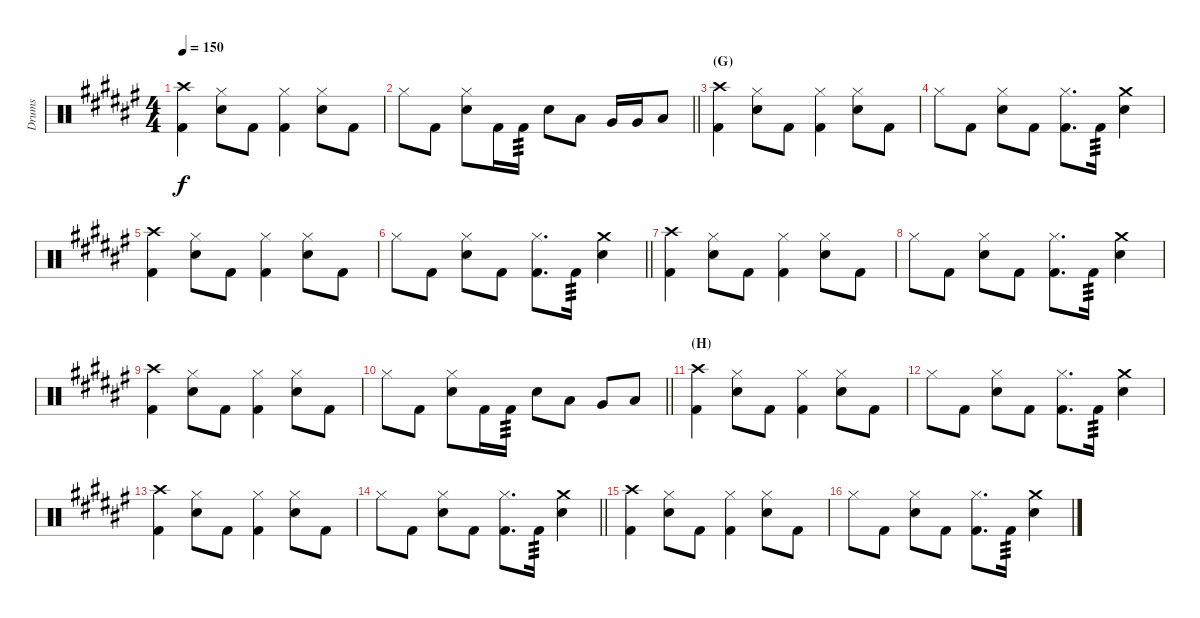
\track ("Drums" "Drums") {instrument percussion}
\staff {score}
\articulation defaults
\ts (4 4)
\tempo 150
\clef neutral
\ks f#
("Crash high (hit)" "Kick (hit) 2").4{dy f} ("Electric Snare (hit)" "Hi-Hat (closed)").8 "Kick (hit) 2".8 ("Hi-Hat (closed)" "Kick (hit) 2").4 ("Electric Snare (hit)" "Hi-Hat (closed)").8 "Kick (hit) 2".8 |
\barLineRight lightlight "Hi-Hat (closed)".8 "Kick (hit) 2".8
("Electric Snare (hit)" "Hi-Hat (closed)").8 "Kick (hit) 2".16 "Kick (hit) 2".16{tp 3} "Electric Snare (hit)".8 "Low Floor Tom (hit)".8 "Very Low Tom (hit)".16 "Very Low Tom (hit)".16 "Low Floor Tom (hit)".8 |
\section ("" "(G)")
("Crash high (hit)" "Kick (hit) 2").4 ("Electric Snare (hit)" "Hi-Hat (closed)").8 "Kick (hit) 2".8 ("Hi-Hat (closed)" "Kick (hit) 2").4 ("Electric Snare (hit)" "Hi-Hat (closed)").8 "Kick (hit) 2".8 |
"Hi-Hat (closed)".8 "Kick (hit) 2".8 ("Electric Snare (hit)" "Hi-Hat (closed)").8 "Kick (hit) 2".8 ("Hi-Hat (closed)" "Kick (hit) 2").8{d} "Kick (hit) 2".16{tp 3} ("Crash medium (hit)" "Electric Snare (hit)").4 |
("Crash high (hit)" "Kick (hit) 2").4 ("Electric Snare (hit)" "Hi-Hat (closed)").8 "Kick (hit) 2".8 ("Hi-Hat (closed)" "Kick (hit) 2").4 ("Electric Snare (hit)" "Hi-Hat (closed)").8 "Kick (hit) 2".8 |
\barLineRight lightlight "Hi-Hat (closed)".8 "Kick (hit) 2".8
("Electric Snare (hit)" "Hi-Hat (closed)").8 "Kick (hit) 2".8 ("Hi-Hat (closed)" "Kick (hit) 2").8{d} "Kick (hit) 2".16{tp 3} ("Crash medium (hit)" "Electric Snare (hit)").4 |
("Crash high (hit)" "Kick (hit) 2").4 ("Electric Snare (hit)" "Hi-Hat (closed)").8 "Kick (hit) 2".8 ("Hi-Hat (closed)" "Kick (hit) 2").4 ("Electric Snare (hit)" "Hi-Hat (closed)").8 "Kick (hit) 2".8 |
"Hi-Hat (closed)".8 "Kick (hit) 2".8 ("Electric Snare (hit)" "Hi-Hat (closed)").8 "Kick (hit) 2".8 ("Hi-Hat (closed)" "Kick (hit) 2").8{d} "Kick (hit) 2".16{tp 3} ("Crash medium (hit)" "Electric Snare (hit)").4 |
("Crash high (hit)" "Kick (hit) 2").4 ("Electric Snare (hit)" "Hi-Hat (closed)").8 "Kick (hit) 2".8 ("Hi-Hat (closed)" "Kick (hit) 2").4 ("Electric Snare (hit)" "Hi-Hat (closed)").8 "Kick (hit) 2".8 |
\barLineRight lightlight "Hi-Hat (closed)".8 "Kick (hit) 2".8
("Electric Snare (hit)" "Hi-Hat (closed)").8 "Kick (hit) 2".16 "Kick (hit) 2".16{tp 3} "Electric Snare (hit)".8 "Low Floor Tom (hit)".8 "Very Low Tom (hit)".8 "Low Floor Tom (hit)".8 |
\section ("" "(H)")
("Crash high (hit)" "Kick (hit) 2").4 ("Electric Snare (hit)" "Hi-Hat (closed)").8 "Kick (hit) 2".8 ("Hi-Hat (closed)" "Kick (hit) 2").4 ("Electric Snare (hit)" "Hi-Hat (closed)").8 "Kick (hit) 2".8 |
"Hi-Hat (closed)".8 "Kick (hit) 2".8 ("Electric Snare (hit)" "Hi-Hat (closed)").8 "Kick (hit) 2".8 ("Hi-Hat (closed)" "Kick (hit) 2").8{d} "Kick (hit) 2".16{tp 3} ("Crash medium (hit)" "Electric Snare (hit)").4 |
("Crash high (hit)" "Kick (hit) 2").4 ("Electric Snare (hit)" "Hi-Hat (closed)").8 "Kick (hit) 2".8 ("Hi-Hat (closed)" "Kick (hit) 2").4 ("Electric Snare (hit)" "Hi-Hat (closed)").8 "Kick (hit) 2".8 |
\barLineRight lightlight "Hi-Hat (closed)".8 "Kick (hit) 2".8
("Electric Snare (hit)" "Hi-Hat (closed)").8 "Kick (hit) 2".8 ("Hi-Hat (closed)" "Kick (hit) 2").8{d} "Kick (hit) 2".16{tp 3} ("Crash medium (hit)" "Electric Snare (hit)").4 |
("Crash high (hit)" "Kick (hit) 2").4 ("Electric Snare (hit)" "Hi-Hat (closed)").8 "Kick (hit) 2".8 ("Hi-Hat (closed)" "Kick (hit) 2").4 ("Electric Snare (hit)" "Hi-Hat (closed)").8 "Kick (hit) 2".8 |
"Hi-Hat (closed)".8 "Kick (hit) 2".8 ("Electric Snare (hit)" "Hi-Hat (closed)").8 "Kick (hit) 2".8 ("Hi-Hat (closed)" "Kick (hit) 2").8{d} "Kick (hit) 2".16{tp 3} ("Crash medium (hit)" "Electric Snare (hit)").4
